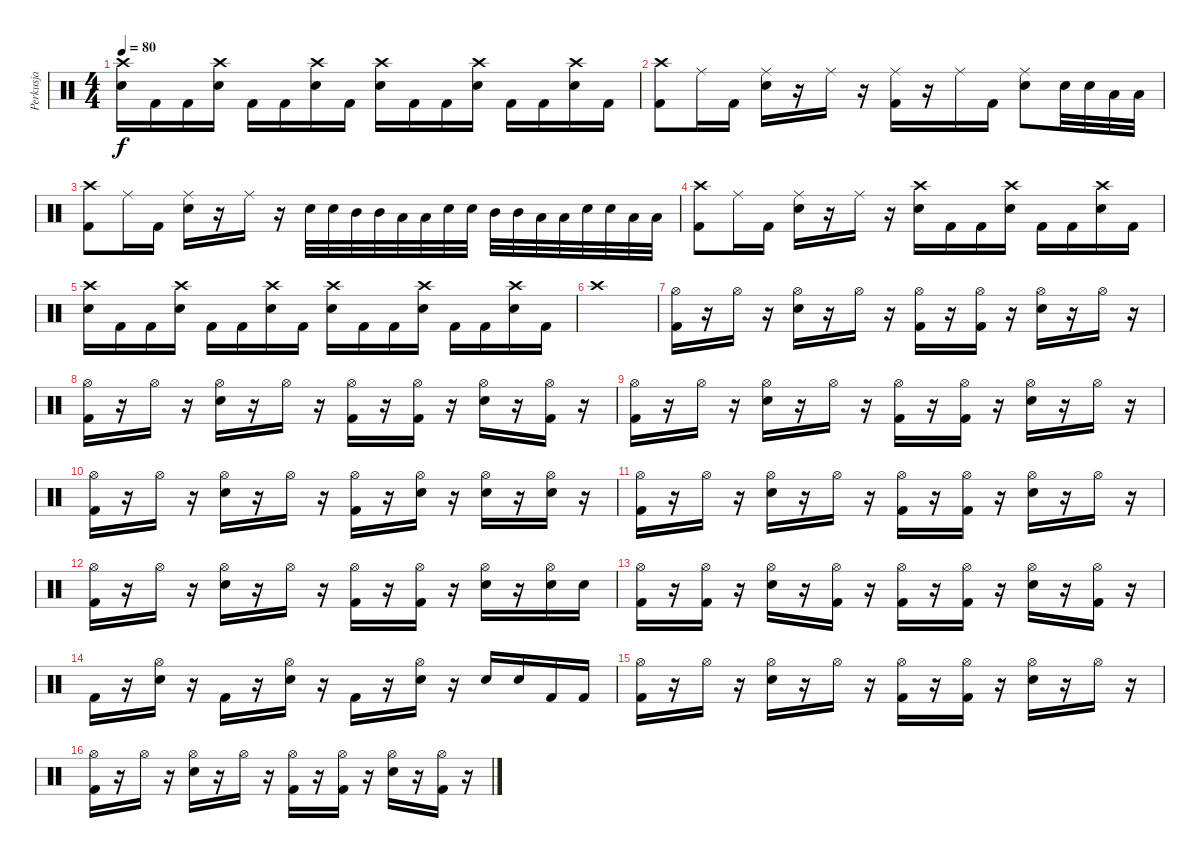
\track ("Perkusja" "Perkusja") {instrument percussion}
\staff {score}
\articulation defaults
\ts (4 4)
\tempo 80
\clef neutral
\ks c
("Crash high (hit)" "Snare (hit) 2").16{dy f} "Kick (hit) 2".16 "Kick (hit) 2".16 ("Crash high (hit)" "Snare (hit) 2").16 "Kick (hit) 2".16 "Kick (hit) 2".16 ("Crash high (hit)" "Snare (hit) 2").16 "Kick (hit) 2".16 ("Crash high (hit)" "Snare (hit) 2").16 "Kick (hit) 2".16 "Kick (hit) 2".16 ("Crash high (hit)" "Snare (hit) 2").16 "Kick (hit) 2".16 "Kick (hit) 2".16 ("Crash high (hit)" "Snare (hit) 2").16 "Kick (hit) 2".16 |
("Crash high (hit)" "Kick (hit) 2").8 "Ride (middle)".16 "Kick (hit) 2".16 ("Ride (middle)" "Snare (hit) 2").16 r.16 "Ride (middle)".16 r.16 ("Ride (middle)" "Kick (hit) 2").16 r.16 "Ride (middle)".16 "Kick (hit) 2".16 ("Ride (middle)" "Snare (hit) 2").8 "Snare (hit) 2".32 "Snare (hit) 2".32 "Low Floor Tom (hit)".32 "Low Floor Tom (hit)".32 |
("Crash high (hit)" "Kick (hit) 2").8 "Ride (middle)".16 "Kick (hit) 2".16 ("Ride (middle)" "Snare (hit) 2").16 r.16 "Ride (middle)".16 r.16 "Snare (hit) 2".32 "Snare (hit) 2".32 "Mid Tom (hit)".32 "Mid Tom (hit)".32 "Low Tom (hit)".32 "Low Tom (hit)".32 "Snare (hit) 2".32 "Snare (hit) 2".32 "Mid Tom (hit)".32 "Mid Tom (hit)".32 "Low Tom (hit)".32 "Low Tom (hit)".32 "Snare (hit) 2".32 "Snare (hit) 2".32 "Low Tom (hit)".32 "Low Tom (hit)".32 |
("Crash high (hit)" "Kick (hit) 2").8 "Ride (middle)".16 "Kick (hit) 2".16 ("Ride (middle)" "Snare (hit) 2").16 r.16 "Ride (middle)".16 r.16 ("Crash high (hit)" "Snare (hit) 2").16 "Kick (hit) 2".16 "Kick (hit) 2".16 ("Crash high (hit)" "Snare (hit) 2").16 "Kick (hit) 2".16 "Kick (hit) 2".16 ("Crash high (hit)" "Snare (hit) 2").16 "Kick (hit) 2".16 |
("Crash high (hit)" "Snare (hit) 2").16 "Kick (hit) 2".16 "Kick (hit) 2".16 ("Crash high (hit)" "Snare (hit) 2").16 "Kick (hit) 2".16 "Kick (hit) 2".16 ("Crash high (hit)" "Snare (hit) 2").16 "Kick (hit) 2".16 ("Crash high (hit)" "Snare (hit) 2").16 "Kick (hit) 2".16 "Kick (hit) 2".16 ("Crash high (hit)" "Snare (hit) 2").16 "Kick (hit) 2".16 "Kick (hit) 2".16 ("Crash high (hit)" "Snare (hit) 2").16 "Kick (hit) 2".16 |
"Crash high (hit)".1 |
("Hi-Hat (open)" "Kick (hit) 2").16 r.16 "Hi-Hat (open)".16 r.16 ("Hi-Hat (open)" "Snare (hit) 2").16 r.16 "Hi-Hat (open)".16 r.16 ("Hi-Hat (open)" "Kick (hit) 2").16 r.16 ("Hi-Hat (open)" "Kick (hit) 2").16 r.16 ("Hi-Hat (open)" "Snare (hit) 2").16 r.16 "Hi-Hat (open)".16 r.16 |
("Hi-Hat (open)" "Kick (hit) 2").16 r.16 "Hi-Hat (open)".16 r.16 ("Hi-Hat (open)" "Snare (hit) 2").16 r.16 "Hi-Hat (open)".16 r.16 ("Hi-Hat (open)" "Kick (hit) 2").16 r.16 ("Hi-Hat (open)" "Kick (hit) 2").16 r.16 ("Hi-Hat (open)" "Snare (hit) 2").16 r.16 ("Hi-Hat (open)" "Kick (hit) 2").16 r.16 |
("Hi-Hat (open)" "Kick (hit) 2").16 r.16 "Hi-Hat (open)".16 r.16 ("Hi-Hat (open)" "Snare (hit) 2").16 r.16 "Hi-Hat (open)".16 r.16 ("Hi-Hat (open)" "Kick (hit) 2").16 r.16 ("Hi-Hat (open)" "Kick (hit) 2").16 r.16 ("Hi-Hat (open)" "Snare (hit) 2").16 r.16 "Hi-Hat (open)".16 r.16 |
("Hi-Hat (open)" "Kick (hit) 2").16 r.16 "Hi-Hat (open)".16 r.16 ("Hi-Hat (open)" "Snare (hit) 2").16 r.16 "Hi-Hat (open)".16 r.16 ("Hi-Hat (open)" "Kick (hit) 2").16 r.16 ("Hi-Hat (open)" "Snare (hit) 2").16 r.16 ("Hi-Hat (open)" "Snare (hit) 2").16 r.16 ("Hi-Hat (open)" "Snare (hit) 2").16 r.16 |
("Hi-Hat (open)" "Kick (hit) 2").16 r.16 "Hi-Hat (open)".16 r.16 ("Hi-Hat (open)" "Snare (hit) 2").16 r.16 "Hi-Hat (open)".16 r.16 ("Hi-Hat (open)" "Kick (hit) 2").16 r.16 ("Hi-Hat (open)" "Kick (hit) 2").16 r.16 ("Hi-Hat (open)" "Snare (hit) 2").16 r.16 "Hi-Hat (open)".16 r.16 |
("Hi-Hat (open)" "Kick (hit) 2").16 r.16 "Hi-Hat (open)".16 r.16 ("Hi-Hat (open)" "Snare (hit) 2").16 r.16 "Hi-Hat (open)".16 r.16 ("Hi-Hat (open)" "Kick (hit) 2").16 r.16 ("Hi-Hat (open)" "Kick (hit) 2").16 r.16 ("Hi-Hat (open)" "Snare (hit) 2").16 r.16 ("Hi-Hat (open)" "Snare (hit) 2").16 "Snare (hit) 2".16 |
("Hi-Hat (open)" "Kick (hit) 2").16 r.16 ("Hi-Hat (open)" "Kick (hit) 2").16 r.16 ("Hi-Hat (open)" "Snare (hit) 2").16 r.16 ("Hi-Hat (open)" "Kick (hit) 2").16 r.16 ("Hi-Hat (open)" "Kick (hit) 2").16 r.16 ("Hi-Hat (open)" "Kick (hit) 2").16 r.16 ("Hi-Hat (open)" "Snare (hit) 2").16 r.16 ("Hi-Hat (open)" "Kick (hit) 2").16 r.16 |
"Kick (hit) 2".16 r.16 ("Hi-Hat (open)" "Snare (hit) 2").16 r.16 "Kick (hit) 2".16 r.16 ("Hi-Hat (open)" "Snare (hit) 2").16 r.16 "Kick (hit) 2".16 r.16 ("Hi-Hat (open)" "Snare (hit) 2").16 r.16 "Snare (hit) 2".16 "Snare (hit) 2".16 "Kick (hit) 2".16 "Kick (hit) 2".16 |
("Hi-Hat (open)" "Kick (hit) 2").16 r.16 "Hi-Hat (open)".16 r.16 ("Hi-Hat (open)" "Snare (hit) 2").16 r.16 "Hi-Hat (open)".16 r.16 ("Hi-Hat (open)" "Kick (hit) 2").16 r.16 ("Hi-Hat (open)" "Kick (hit) 2").16 r.16 ("Hi-Hat (open)" "Snare (hit) 2").16 r.16 "Hi-Hat (open)".16 r.16 |
("Hi-Hat (open)" "Kick (hit) 2").16 r.16 "Hi-Hat (open)".16 r.16 ("Hi-Hat (open)" "Snare (hit) 2").16 r.16 "Hi-Hat (open)".16 r.16 ("Hi-Hat (open)" "Kick (hit) 2").16 r.16 ("Hi-Hat (open)" "Kick (hit) 2").16 r.16 ("Hi-Hat (open)" "Snare (hit) 2").16 r.16 ("Hi-Hat (open)" "Kick (hit) 2").16 r.16
